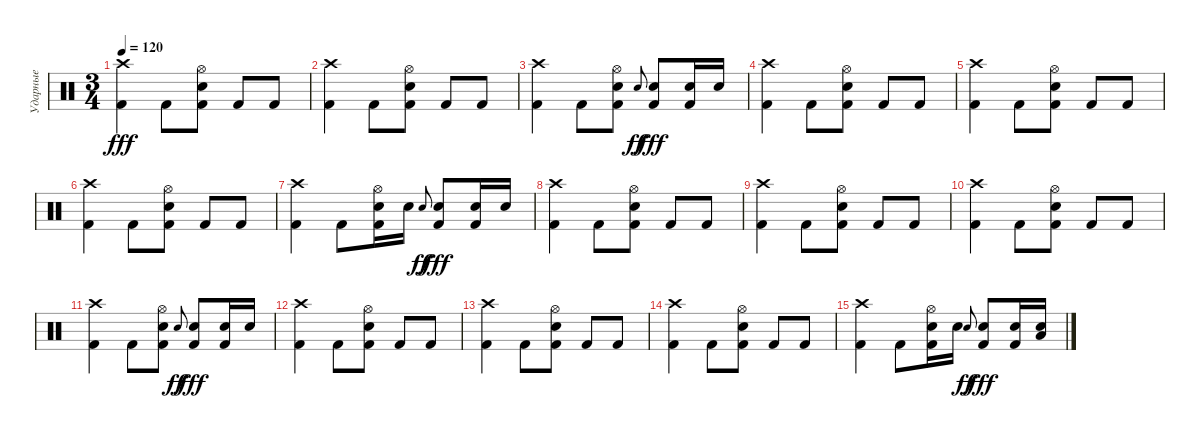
\track ("Ударные" "Ударные") {instrument percussion}
\staff {score}
\articulation defaults
\ts (3 4)
\tempo 120
\clef neutral
\ks c
("Crash high (hit)" "Kick (hit) 2").4{dy fff} "Kick (hit) 2".8 ("Kick (hit) 2" "Electric Snare (hit)" "Hi-Hat (open)").8 "Kick (hit) 2".8 "Kick (hit) 2".8 |
("Crash high (hit)" "Kick (hit) 2").4 "Kick (hit) 2".8 ("Kick (hit) 2" "Electric Snare (hit)" "Hi-Hat (open)").8 "Kick (hit) 2".8 "Kick (hit) 2".8 |
("Crash high (hit)" "Kick (hit) 2").4 "Kick (hit) 2".8 ("Kick (hit) 2" "Electric Snare (hit)" "Hi-Hat (open)").8 "Electric Snare (hit)".8{gr onbeat dy ff} ("Kick (hit) 2" "Electric Snare (hit)").8{dy fff} ("Kick (hit) 2" "Electric Snare (hit)").16 "Electric Snare (hit)".16 |
("Crash high (hit)" "Kick (hit) 2").4 "Kick (hit) 2".8 ("Kick (hit) 2" "Electric Snare (hit)" "Hi-Hat (open)").8 "Kick (hit) 2".8 "Kick (hit) 2".8 |
("Crash high (hit)" "Kick (hit) 2").4 "Kick (hit) 2".8 ("Kick (hit) 2" "Electric Snare (hit)" "Hi-Hat (open)").8 "Kick (hit) 2".8 "Kick (hit) 2".8 |
("Crash high (hit)" "Kick (hit) 2").4 "Kick (hit) 2".8 ("Kick (hit) 2" "Electric Snare (hit)" "Hi-Hat (open)").8 "Kick (hit) 2".8 "Kick (hit) 2".8 |
("Crash high (hit)" "Kick (hit) 2").4 "Kick (hit) 2".8 ("Kick (hit) 2" "Electric Snare (hit)" "Hi-Hat (open)").16 "Electric Snare (hit)".16 "Electric Snare (hit)".8{gr onbeat dy ff} ("Kick (hit) 2" "Electric Snare (hit)").8{dy fff} ("Kick (hit) 2" "Electric Snare (hit)").16 "Electric Snare (hit)".16 |
("Crash high (hit)" "Kick (hit) 2").4 "Kick (hit) 2".8 ("Kick (hit) 2" "Electric Snare (hit)" "Hi-Hat (open)").8 "Kick (hit) 2".8 "Kick (hit) 2".8 |
("Crash high (hit)" "Kick (hit) 2").4 "Kick (hit) 2".8 ("Kick (hit) 2" "Electric Snare (hit)" "Hi-Hat (open)").8 "Kick (hit) 2".8 "Kick (hit) 2".8 |
("Crash high (hit)" "Kick (hit) 2").4 "Kick (hit) 2".8 ("Kick (hit) 2" "Electric Snare (hit)" "Hi-Hat (open)").8 "Kick (hit) 2".8 "Kick (hit) 2".8 |
("Crash high (hit)" "Kick (hit) 2").4 "Kick (hit) 2".8 ("Kick (hit) 2" "Electric Snare (hit)" "Hi-Hat (open)").8 "Electric Snare (hit)".8{gr onbeat dy ff} ("Kick (hit) 2" "Electric Snare (hit)").8{dy fff} ("Kick (hit) 2" "Electric Snare (hit)").16 "Electric Snare (hit)".16 |
("Crash high (hit)" "Kick (hit) 2").4 "Kick (hit) 2".8 ("Kick (hit) 2" "Electric Snare (hit)" "Hi-Hat (open)").8 "Kick (hit) 2".8 "Kick (hit) 2".8 |
("Crash high (hit)" "Kick (hit) 2").4 "Kick (hit) 2".8 ("Kick (hit) 2" "Electric Snare (hit)" "Hi-Hat (open)").8 "Kick (hit) 2".8 "Kick (hit) 2".8 |
("Crash high (hit)" "Kick (hit) 2").4 "Kick (hit) 2".8 ("Kick (hit) 2" "Electric Snare (hit)" "Hi-Hat (open)").8 "Kick (hit) 2".8 "Kick (hit) 2".8 |
("Crash high (hit)" "Kick (hit) 2").4 "Kick (hit) 2".8 ("Kick (hit) 2" "Electric Snare (hit)" "Hi-Hat (open)").16 "Electric Snare (hit)".16 "Electric Snare (hit)".8{gr onbeat dy ff} ("Kick (hit) 2" "Electric Snare (hit)").8{dy fff} ("Kick (hit) 2" "Electric Snare (hit)").16 ("Electric Snare (hit)" "Low Tom (hit)").16
